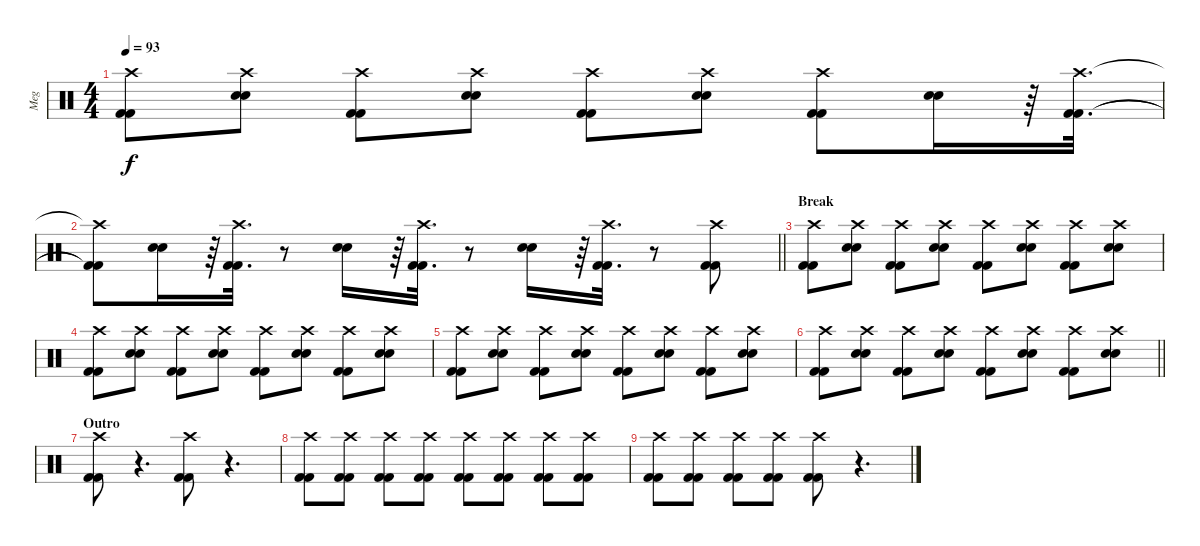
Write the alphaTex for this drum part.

\track ("Meg" "Meg") {instrument percussion}
\staff {score}
\articulation defaults
\ts (4 4)
\tempo 93
\clef neutral
\ks c
("Crash high (hit)" "Kick (hit) 2" "Kick (hit) 2").8{dy f} ("Crash high (hit)" "Snare (hit) 2" "Snare (hit) 2").8 ("Crash high (hit)" "Kick (hit) 2" "Kick (hit) 2").8 ("Crash high (hit)" "Snare (hit) 2" "Snare (hit) 2").8 ("Crash high (hit)" "Kick (hit) 2" "Kick (hit) 2").8 ("Crash high (hit)" "Snare (hit) 2" "Snare (hit) 2").8 ("Crash high (hit)" "Kick (hit) 2" "Kick (hit) 2").8 ("Snare (hit) 2" "Snare (hit) 2").16 r.64 ("Crash high (hit)" "Kick (hit) 2" "Kick (hit) 2").32{d} |
\barLineRight lightlight
("Crash high (hit)"{t} "Kick (hit) 2"{t} "Kick (hit) 2"{t}).8 ("Snare (hit) 2" "Snare (hit) 2").16 r.64 ("Crash high (hit)" "Kick (hit) 2" "Kick (hit) 2").32{d} r.8 ("Snare (hit) 2" "Snare (hit) 2").16 r.64 ("Crash high (hit)" "Kick (hit) 2" "Kick (hit) 2").32{d} r.8 ("Snare (hit) 2" "Snare (hit) 2").16 r.64 ("Crash high (hit)" "Kick (hit) 2" "Kick (hit) 2").32{d} r.8 ("Crash high (hit)" "Kick (hit) 2" "Kick (hit) 2").8 |
\section ("" "Break")
("Crash high (hit)" "Kick (hit) 2" "Kick (hit) 2").8 ("Crash high (hit)" "Snare (hit) 2" "Snare (hit) 2").8 ("Crash high (hit)" "Kick (hit) 2" "Kick (hit) 2").8 ("Crash high (hit)" "Snare (hit) 2" "Snare (hit) 2").8 ("Crash high (hit)" "Kick (hit) 2" "Kick (hit) 2").8 ("Crash high (hit)" "Snare (hit) 2" "Snare (hit) 2").8 ("Crash high (hit)" "Kick (hit) 2" "Kick (hit) 2").8 ("Crash high (hit)" "Snare (hit) 2" "Snare (hit) 2").8 |
("Crash high (hit)" "Kick (hit) 2" "Kick (hit) 2").8 ("Crash high (hit)" "Snare (hit) 2" "Snare (hit) 2").8 ("Crash high (hit)" "Kick (hit) 2" "Kick (hit) 2").8 ("Crash high (hit)" "Snare (hit) 2" "Snare (hit) 2").8 ("Crash high (hit)" "Kick (hit) 2" "Kick (hit) 2").8 ("Crash high (hit)" "Snare (hit) 2" "Snare (hit) 2").8 ("Crash high (hit)" "Kick (hit) 2" "Kick (hit) 2").8 ("Crash high (hit)" "Snare (hit) 2" "Snare (hit) 2").8 |
("Crash high (hit)" "Kick (hit) 2" "Kick (hit) 2").8 ("Crash high (hit)" "Snare (hit) 2" "Snare (hit) 2").8 ("Crash high (hit)" "Kick (hit) 2" "Kick (hit) 2").8 ("Crash high (hit)" "Snare (hit) 2" "Snare (hit) 2").8 ("Crash high (hit)" "Kick (hit) 2" "Kick (hit) 2").8 ("Crash high (hit)" "Snare (hit) 2" "Snare (hit) 2").8 ("Crash high (hit)" "Kick (hit) 2" "Kick (hit) 2").8 ("Crash high (hit)" "Snare (hit) 2" "Snare (hit) 2").8 |
\barLineRight lightlight
("Crash high (hit)" "Kick (hit) 2" "Kick (hit) 2").8 ("Crash high (hit)" "Snare (hit) 2" "Snare (hit) 2").8 ("Crash high (hit)" "Kick (hit) 2" "Kick (hit) 2").8 ("Crash high (hit)" "Snare (hit) 2" "Snare (hit) 2").8 ("Crash high (hit)" "Kick (hit) 2" "Kick (hit) 2").8 ("Crash high (hit)" "Snare (hit) 2" "Snare (hit) 2").8 ("Crash high (hit)" "Kick (hit) 2" "Kick (hit) 2").8 ("Crash high (hit)" "Snare (hit) 2" "Snare (hit) 2").8 |
\section ("" "Outro")
("Crash high (hit)" "Kick (hit) 2" "Kick (hit) 2").8 r.4{d} ("Crash high (hit)" "Kick (hit) 2" "Kick (hit) 2").8 r.4{d} |
("Crash high (hit)" "Kick (hit) 2" "Kick (hit) 2").8 ("Crash high (hit)" "Kick (hit) 2" "Kick (hit) 2").8 ("Crash high (hit)" "Kick (hit) 2" "Kick (hit) 2").8 ("Crash high (hit)" "Kick (hit) 2" "Kick (hit) 2").8 ("Crash high (hit)" "Kick (hit) 2" "Kick (hit) 2").8 ("Crash high (hit)" "Kick (hit) 2" "Kick (hit) 2").8 ("Crash high (hit)" "Kick (hit) 2" "Kick (hit) 2").8 ("Crash high (hit)" "Kick (hit) 2" "Kick (hit) 2").8 |
("Crash high (hit)" "Kick (hit) 2" "Kick (hit) 2").8 ("Crash high (hit)" "Kick (hit) 2" "Kick (hit) 2").8 ("Crash high (hit)" "Kick (hit) 2" "Kick (hit) 2").8 ("Crash high (hit)" "Kick (hit) 2" "Kick (hit) 2").8 ("Crash high (hit)" "Kick (hit) 2" "Kick (hit) 2").8 r.4{d}
